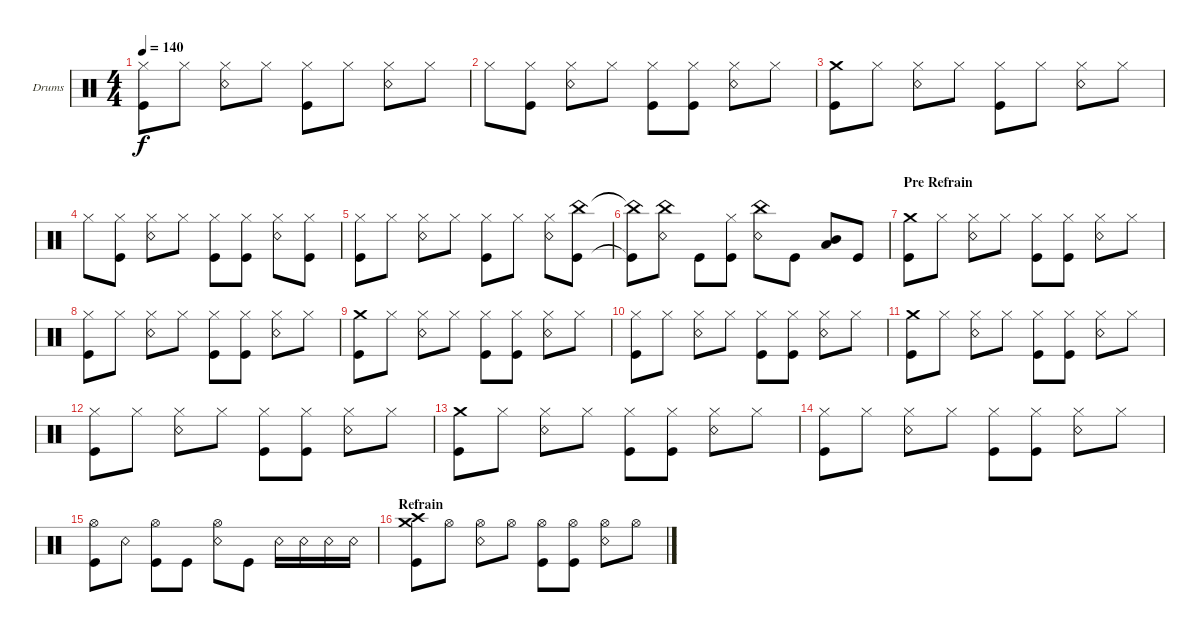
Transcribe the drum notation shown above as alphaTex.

\bracketExtendMode groupsimilarinstruments
\firstSystemTrackNameOrientation horizontal
\otherSystemsTrackNameOrientation horizontal
\track ("Drumkit" "Drums") {instrument percussion}
\staff {score}
\articulation defaults
\ts (4 4)
\tempo 140
\clef neutral
\ks c
("Kick (hit)" "Hi-Hat (closed)").8{dy f} "Hi-Hat (closed)".8 ("Hi-Hat (closed)" "Snare (rim shot)").8 "Hi-Hat (closed)".8 ("Hi-Hat (closed)" "Kick (hit)").8 "Hi-Hat (closed)".8 ("Hi-Hat (closed)" "Snare (rim shot)").8 "Hi-Hat (closed)".8 |
"Hi-Hat (closed)".8 ("Hi-Hat (closed)" "Kick (hit)").8 ("Hi-Hat (closed)" "Snare (rim shot)").8 "Hi-Hat (closed)".8 ("Hi-Hat (closed)" "Kick (hit)").8 ("Hi-Hat (closed)" "Kick (hit)").8 ("Hi-Hat (closed)" "Snare (rim shot)").8 "Hi-Hat (closed)".8 |
("Kick (hit)" "Crash medium (hit)").8 "Hi-Hat (closed)".8 ("Hi-Hat (closed)" "Snare (rim shot)").8 "Hi-Hat (closed)".8 ("Hi-Hat (closed)" "Kick (hit)").8 "Hi-Hat (closed)".8 ("Hi-Hat (closed)" "Snare (rim shot)").8 "Hi-Hat (closed)".8 |
"Hi-Hat (closed)".8 ("Hi-Hat (closed)" "Kick (hit)").8 ("Hi-Hat (closed)" "Snare (rim shot)").8 "Hi-Hat (closed)".8 ("Hi-Hat (closed)" "Kick (hit)").8 ("Hi-Hat (closed)" "Kick (hit)").8 ("Hi-Hat (closed)" "Snare (rim shot)").8 ("Hi-Hat (closed)" "Kick (hit)").8 |
("Kick (hit)" "Hi-Hat (closed)").8 "Hi-Hat (closed)".8 ("Hi-Hat (closed)" "Snare (rim shot)").8 "Hi-Hat (closed)".8 ("Hi-Hat (closed)" "Kick (hit)").8 "Hi-Hat (closed)".8 ("Hi-Hat (closed)" "Snare (rim shot)").8 ("Kick (hit)" "China (hit)").8 |
("Kick (hit)"{t} "China (hit)"{t}).8 ("Snare (rim shot)" "China (hit)").8 "Kick (hit)".8 ("Hi-Hat (closed)" "Kick (hit)").8 ("Snare (rim shot)" "China (hit)").8 "Kick (hit)".8 ("Mid Tom (hit)" "Low Tom (hit)").8 "Kick (hit)".8 |
\section ("" "Pre Refrain")
("Kick (hit)" "Crash medium (hit)").8 "Hi-Hat (closed)".8 ("Hi-Hat (closed)" "Snare (rim shot)").8 "Hi-Hat (closed)".8 ("Hi-Hat (closed)" "Kick (hit)").8 ("Hi-Hat (closed)" "Kick (hit)").8 ("Hi-Hat (closed)" "Snare (rim shot)").8 "Hi-Hat (closed)".8 |
("Kick (hit)" "Hi-Hat (closed)").8 "Hi-Hat (closed)".8 ("Hi-Hat (closed)" "Snare (rim shot)").8 "Hi-Hat (closed)".8 ("Hi-Hat (closed)" "Kick (hit)").8 ("Hi-Hat (closed)" "Kick (hit)").8 ("Hi-Hat (closed)" "Snare (rim shot)").8 "Hi-Hat (closed)".8 |
("Kick (hit)" "Crash medium (hit)").8 "Hi-Hat (closed)".8 ("Hi-Hat (closed)" "Snare (rim shot)").8 "Hi-Hat (closed)".8 ("Hi-Hat (closed)" "Kick (hit)").8 ("Hi-Hat (closed)" "Kick (hit)").8 ("Hi-Hat (closed)" "Snare (rim shot)").8 "Hi-Hat (closed)".8 |
("Kick (hit)" "Hi-Hat (closed)").8 "Hi-Hat (closed)".8 ("Hi-Hat (closed)" "Snare (rim shot)").8 "Hi-Hat (closed)".8 ("Hi-Hat (closed)" "Kick (hit)").8 ("Hi-Hat (closed)" "Kick (hit)").8 ("Hi-Hat (closed)" "Snare (rim shot)").8 "Hi-Hat (closed)".8 |
("Kick (hit)" "Crash medium (hit)").8 "Hi-Hat (closed)".8 ("Hi-Hat (closed)" "Snare (rim shot)").8 "Hi-Hat (closed)".8 ("Hi-Hat (closed)" "Kick (hit)").8 ("Hi-Hat (closed)" "Kick (hit)").8 ("Hi-Hat (closed)" "Snare (rim shot)").8 "Hi-Hat (closed)".8 |
("Kick (hit)" "Hi-Hat (closed)").8 "Hi-Hat (closed)".8 ("Hi-Hat (closed)" "Snare (rim shot)").8 "Hi-Hat (closed)".8 ("Hi-Hat (closed)" "Kick (hit)").8 ("Hi-Hat (closed)" "Kick (hit)").8 ("Hi-Hat (closed)" "Snare (rim shot)").8 "Hi-Hat (closed)".8 |
("Kick (hit)" "Crash medium (hit)").8 "Hi-Hat (closed)".8 ("Hi-Hat (closed)" "Snare (rim shot)").8 "Hi-Hat (closed)".8 ("Hi-Hat (closed)" "Kick (hit)").8 ("Hi-Hat (closed)" "Kick (hit)").8 ("Hi-Hat (closed)" "Snare (rim shot)").8 "Hi-Hat (closed)".8 |
("Kick (hit)" "Hi-Hat (closed)").8 "Hi-Hat (closed)".8 ("Hi-Hat (closed)" "Snare (rim shot)").8 "Hi-Hat (closed)".8 ("Hi-Hat (closed)" "Kick (hit)").8 ("Hi-Hat (closed)" "Kick (hit)").8 ("Hi-Hat (closed)" "Snare (rim shot)").8 "Hi-Hat (closed)".8 |
("Kick (hit)" "Hi-Hat (open)").8 "Snare (rim shot)".8 ("Kick (hit)" "Hi-Hat (open)").8 "Kick (hit)".8 ("Snare (rim shot)" "Hi-Hat (open)").8 "Kick (hit)".8 "Snare (rim shot)".16 "Snare (rim shot)".16 "Snare (rim shot)".16 "Snare (rim shot)".16 |
\section ("" "Refrain")
("Kick (hit)" "Crash medium (hit)" "Crash high (hit)").8 "Hi-Hat (open)".8 ("Hi-Hat (open)" "Snare (rim shot)").8 "Hi-Hat (open)".8 ("Hi-Hat (open)" "Kick (hit)").8 ("Hi-Hat (open)" "Kick (hit)").8 ("Snare (rim shot)" "Hi-Hat (open)").8 "Hi-Hat (open)".8
